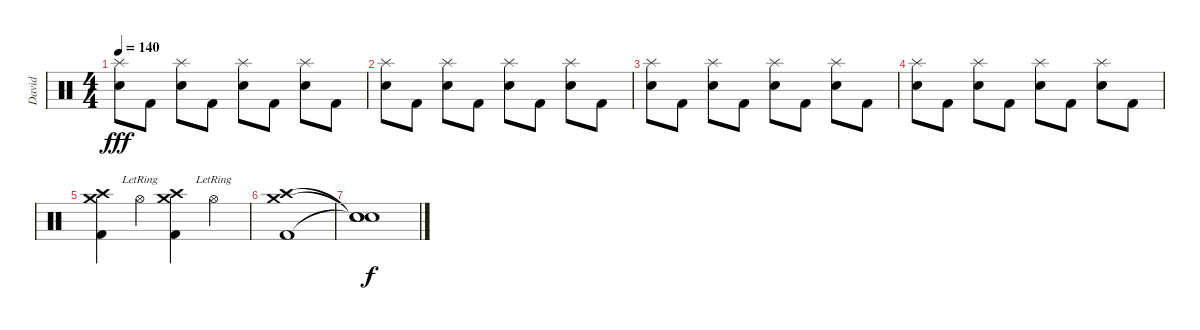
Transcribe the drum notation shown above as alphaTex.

\track ("David " "David ") {instrument percussion}
\staff {score}
\articulation defaults
\ts (4 4)
\tempo 140
\clef neutral
\ks c
("Electric Snare (hit)" "Splash (hit)").8{dy fff} "Kick (hit) 2".8 ("Electric Snare (hit)" "Splash (hit)").8 "Kick (hit) 2".8 ("Electric Snare (hit)" "Splash (hit)").8 "Kick (hit) 2".8 ("Electric Snare (hit)" "Splash (hit)").8 "Kick (hit) 2".8 |
("Electric Snare (hit)" "Splash (hit)").8 "Kick (hit) 2".8 ("Electric Snare (hit)" "Splash (hit)").8 "Kick (hit) 2".8 ("Electric Snare (hit)" "Splash (hit)").8 "Kick (hit) 2".8 ("Electric Snare (hit)" "Splash (hit)").8 "Kick (hit) 2".8 |
("Electric Snare (hit)" "Splash (hit)").8 "Kick (hit) 2".8 ("Electric Snare (hit)" "Splash (hit)").8 "Kick (hit) 2".8 ("Electric Snare (hit)" "Splash (hit)").8 "Kick (hit) 2".8 ("Electric Snare (hit)" "Splash (hit)").8 "Kick (hit) 2".8 |
("Electric Snare (hit)" "Splash (hit)").8 "Kick (hit) 2".8 ("Electric Snare (hit)" "Splash (hit)").8 "Kick (hit) 2".8 ("Electric Snare (hit)" "Splash (hit)").8 "Kick (hit) 2".8 ("Electric Snare (hit)" "Splash (hit)").8 "Kick (hit) 2".8 |
("Crash high (hit)" "Crash medium (hit)" "Kick (hit) 2").4 "Hi-Hat (open)"{lr}.4 ("Crash high (hit)" "Crash medium (hit)" "Kick (hit) 2").4 "Hi-Hat (open)"{lr}.4 |
("Crash high (hit)" "Crash medium (hit)" "Kick (hit) 2").1 |
("Snare (hit)"{t} "Snare (hit)"{t} "Snare (hit)"{t}).1{dy f}
